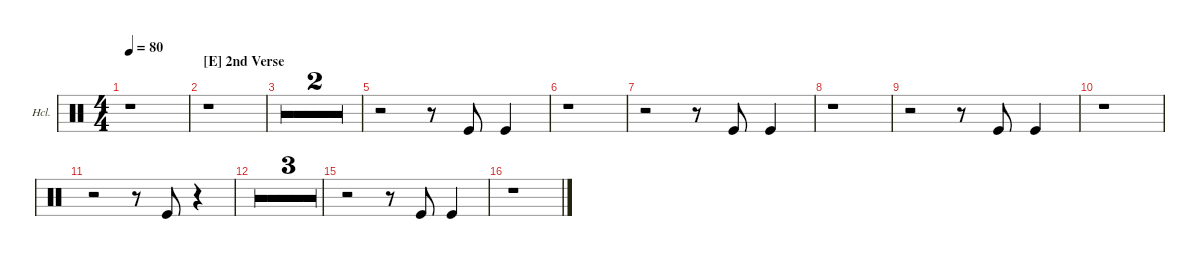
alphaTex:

\defaultSystemsLayout 4
\hideDynamics
\bracketExtendMode groupsimilarinstruments
\firstSystemTrackNameOrientation horizontal
\otherSystemsTrackNameOrientation horizontal
\track ("Hand Clap" "Hcl.") {multiBarRest instrument percussion}
\staff {score}
\articulation defaults
\ts (4 4)
\tempo 80
\clef neutral
\ks c
r.1{dy mp} |
\section ("E" "2nd Verse")
r.1 |
r.1 |
r.1 |
r.2 r.8 "Kick (hit)".8 "Kick (hit)".4 |
r.1 |
r.2 r.8 "Kick (hit)".8 "Kick (hit)".4 |
r.1 |
r.2 r.8 "Kick (hit)".8 "Kick (hit)".4 |
r.1 |
r.2 r.8 "Kick (hit)".8 r.4 |
r.1 |
r.1 |
r.1 |
r.2 r.8 "Kick (hit)".8 "Kick (hit)".4 |
r.1
